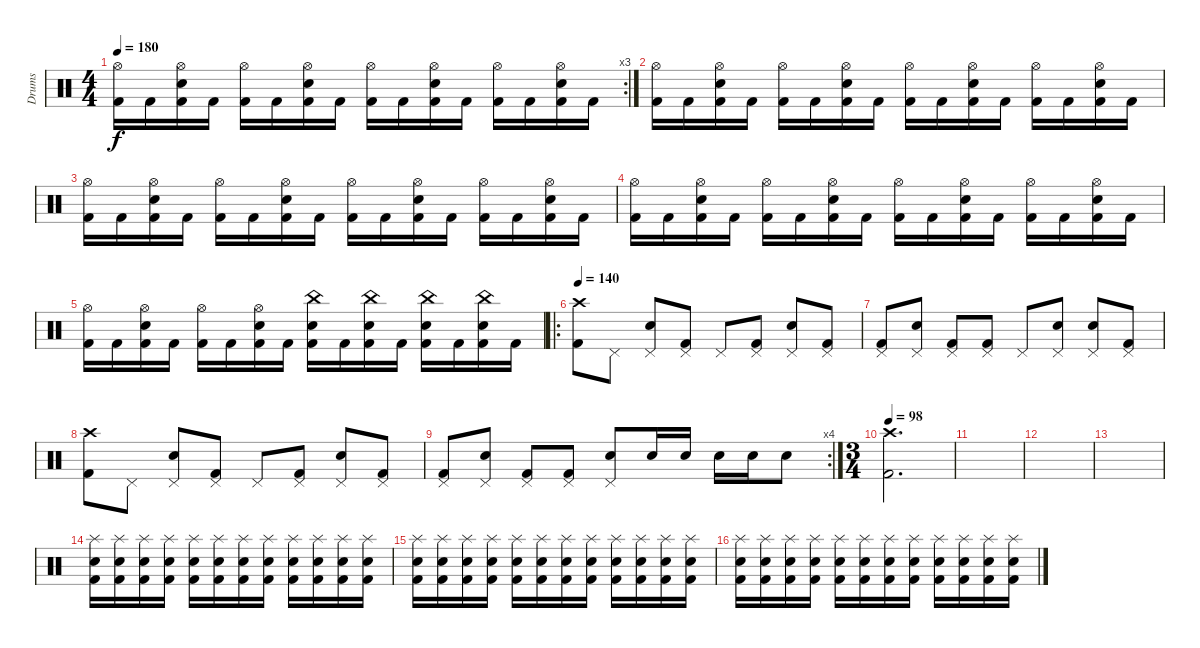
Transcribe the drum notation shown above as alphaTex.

\track ("Drums" "Drums") {instrument percussion}
\staff {score}
\articulation defaults
\rc 3
\ts (4 4)
\tempo 180
\clef neutral
\ks c
("Hi-Hat (open)" "Kick (hit) 2").16{dy f} "Kick (hit) 2".16 ("Hi-Hat (open)" "Electric Snare (hit)" "Kick (hit) 2").16 "Kick (hit) 2".16 ("Hi-Hat (open)" "Kick (hit) 2").16 "Kick (hit) 2".16 ("Hi-Hat (open)" "Electric Snare (hit)" "Kick (hit) 2").16 "Kick (hit) 2".16 ("Hi-Hat (open)" "Kick (hit) 2").16 "Kick (hit) 2".16 ("Hi-Hat (open)" "Electric Snare (hit)" "Kick (hit) 2").16 "Kick (hit) 2".16 ("Hi-Hat (open)" "Kick (hit) 2").16 "Kick (hit) 2".16 ("Hi-Hat (open)" "Electric Snare (hit)" "Kick (hit) 2").16 "Kick (hit) 2".16 |
("Hi-Hat (open)" "Kick (hit) 2").16 "Kick (hit) 2".16 ("Hi-Hat (open)" "Electric Snare (hit)" "Kick (hit) 2").16 "Kick (hit) 2".16 ("Hi-Hat (open)" "Kick (hit) 2").16 "Kick (hit) 2".16 ("Hi-Hat (open)" "Electric Snare (hit)" "Kick (hit) 2").16 "Kick (hit) 2".16 ("Hi-Hat (open)" "Kick (hit) 2").16 "Kick (hit) 2".16 ("Hi-Hat (open)" "Electric Snare (hit)" "Kick (hit) 2").16 "Kick (hit) 2".16 ("Hi-Hat (open)" "Kick (hit) 2").16 "Kick (hit) 2".16 ("Hi-Hat (open)" "Electric Snare (hit)" "Kick (hit) 2").16 "Kick (hit) 2".16 |
("Hi-Hat (open)" "Kick (hit) 2").16 "Kick (hit) 2".16 ("Hi-Hat (open)" "Electric Snare (hit)" "Kick (hit) 2").16 "Kick (hit) 2".16 ("Hi-Hat (open)" "Kick (hit) 2").16 "Kick (hit) 2".16 ("Hi-Hat (open)" "Electric Snare (hit)" "Kick (hit) 2").16 "Kick (hit) 2".16 ("Hi-Hat (open)" "Kick (hit) 2").16 "Kick (hit) 2".16 ("Hi-Hat (open)" "Electric Snare (hit)" "Kick (hit) 2").16 "Kick (hit) 2".16 ("Hi-Hat (open)" "Kick (hit) 2").16 "Kick (hit) 2".16 ("Hi-Hat (open)" "Electric Snare (hit)" "Kick (hit) 2").16 "Kick (hit) 2".16 |
("Hi-Hat (open)" "Kick (hit) 2").16 "Kick (hit) 2".16 ("Hi-Hat (open)" "Electric Snare (hit)" "Kick (hit) 2").16 "Kick (hit) 2".16 ("Hi-Hat (open)" "Kick (hit) 2").16 "Kick (hit) 2".16 ("Hi-Hat (open)" "Electric Snare (hit)" "Kick (hit) 2").16 "Kick (hit) 2".16 ("Hi-Hat (open)" "Kick (hit) 2").16 "Kick (hit) 2".16 ("Hi-Hat (open)" "Electric Snare (hit)" "Kick (hit) 2").16 "Kick (hit) 2".16 ("Hi-Hat (open)" "Kick (hit) 2").16 "Kick (hit) 2".16 ("Hi-Hat (open)" "Electric Snare (hit)" "Kick (hit) 2").16 "Kick (hit) 2".16 |
("Hi-Hat (open)" "Kick (hit) 2").16 "Kick (hit) 2".16 ("Hi-Hat (open)" "Electric Snare (hit)" "Kick (hit) 2").16 "Kick (hit) 2".16 ("Hi-Hat (open)" "Kick (hit) 2").16 "Kick (hit) 2".16 ("Hi-Hat (open)" "Electric Snare (hit)" "Kick (hit) 2").16 "Kick (hit) 2".16 ("China (hit)" "Electric Snare (hit)" "Kick (hit) 2").16 "Kick (hit) 2".16 ("China (hit)" "Electric Snare (hit)" "Kick (hit) 2").16 "Kick (hit) 2".16 ("China (hit)" "Electric Snare (hit)" "Kick (hit) 2").16 "Kick (hit) 2".16 ("China (hit)" "Electric Snare (hit)" "Kick (hit) 2").16 "Kick (hit) 2".16 |
\ro
\tempo 140
("Crash high (hit)" "Kick (hit) 2").8 "Pedal Hi-Hat (hit)".8 ("Pedal Hi-Hat (hit)" "Electric Snare (hit)").8 ("Pedal Hi-Hat (hit)" "Kick (hit) 2").8 "Pedal Hi-Hat (hit)".8 ("Pedal Hi-Hat (hit)" "Kick (hit) 2").8 ("Pedal Hi-Hat (hit)" "Electric Snare (hit)").8 ("Pedal Hi-Hat (hit)" "Kick (hit) 2").8 |
("Pedal Hi-Hat (hit)" "Kick (hit) 2").8 ("Pedal Hi-Hat (hit)" "Electric Snare (hit)").8 ("Pedal Hi-Hat (hit)" "Kick (hit) 2").8 ("Pedal Hi-Hat (hit)" "Kick (hit) 2").8 "Pedal Hi-Hat (hit)".8 ("Pedal Hi-Hat (hit)" "Electric Snare (hit)").8 ("Pedal Hi-Hat (hit)" "Electric Snare (hit)").8 ("Pedal Hi-Hat (hit)" "Kick (hit) 2").8 |
("Crash high (hit)" "Kick (hit) 2").8 "Pedal Hi-Hat (hit)".8 ("Pedal Hi-Hat (hit)" "Electric Snare (hit)").8 ("Pedal Hi-Hat (hit)" "Kick (hit) 2").8 "Pedal Hi-Hat (hit)".8 ("Pedal Hi-Hat (hit)" "Kick (hit) 2").8 ("Pedal Hi-Hat (hit)" "Electric Snare (hit)").8 ("Pedal Hi-Hat (hit)" "Kick (hit) 2").8 |
\rc 4
("Pedal Hi-Hat (hit)" "Kick (hit) 2").8 ("Pedal Hi-Hat (hit)" "Electric Snare (hit)").8 ("Pedal Hi-Hat (hit)" "Kick (hit) 2").8 ("Pedal Hi-Hat (hit)" "Kick (hit) 2").8 ("Pedal Hi-Hat (hit)" "Electric Snare (hit)").8 "Electric Snare (hit)".16 "Electric Snare (hit)".16 "Electric Snare (hit)".16 "Electric Snare (hit)".16 "Electric Snare (hit)".8 |
\ts (3 4)
\tempo 98
("Crash high (hit)" "Kick (hit) 2").2{d} |
|
|
|
("Splash (hit)" "Electric Snare (hit)" "Kick (hit) 2").16 ("Splash (hit)" "Electric Snare (hit)" "Kick (hit) 2").16 ("Splash (hit)" "Electric Snare (hit)" "Kick (hit) 2").16 ("Splash (hit)" "Electric Snare (hit)" "Kick (hit) 2").16 ("Splash (hit)" "Electric Snare (hit)" "Kick (hit) 2").16 ("Splash (hit)" "Electric Snare (hit)" "Kick (hit) 2").16 ("Splash (hit)" "Electric Snare (hit)" "Kick (hit) 2").16 ("Splash (hit)" "Electric Snare (hit)" "Kick (hit) 2").16 ("Splash (hit)" "Electric Snare (hit)" "Kick (hit) 2").16 ("Splash (hit)" "Electric Snare (hit)" "Kick (hit) 2").16 ("Splash (hit)" "Electric Snare (hit)" "Kick (hit) 2").16 ("Splash (hit)" "Electric Snare (hit)" "Kick (hit) 2").16 |
("Splash (hit)" "Electric Snare (hit)" "Kick (hit) 2").16 ("Splash (hit)" "Electric Snare (hit)" "Kick (hit) 2").16 ("Splash (hit)" "Electric Snare (hit)" "Kick (hit) 2").16 ("Splash (hit)" "Electric Snare (hit)" "Kick (hit) 2").16 ("Splash (hit)" "Electric Snare (hit)" "Kick (hit) 2").16 ("Splash (hit)" "Electric Snare (hit)" "Kick (hit) 2").16 ("Splash (hit)" "Electric Snare (hit)" "Kick (hit) 2").16 ("Splash (hit)" "Electric Snare (hit)" "Kick (hit) 2").16 ("Splash (hit)" "Electric Snare (hit)" "Kick (hit) 2").16 ("Splash (hit)" "Electric Snare (hit)" "Kick (hit) 2").16 ("Splash (hit)" "Electric Snare (hit)" "Kick (hit) 2").16 ("Splash (hit)" "Electric Snare (hit)" "Kick (hit) 2").16 |
("Splash (hit)" "Electric Snare (hit)" "Kick (hit) 2").16 ("Splash (hit)" "Electric Snare (hit)" "Kick (hit) 2").16 ("Splash (hit)" "Electric Snare (hit)" "Kick (hit) 2").16 ("Splash (hit)" "Electric Snare (hit)" "Kick (hit) 2").16 ("Splash (hit)" "Electric Snare (hit)" "Kick (hit) 2").16 ("Splash (hit)" "Electric Snare (hit)" "Kick (hit) 2").16 ("Splash (hit)" "Electric Snare (hit)" "Kick (hit) 2").16 ("Splash (hit)" "Electric Snare (hit)" "Kick (hit) 2").16 ("Splash (hit)" "Electric Snare (hit)" "Kick (hit) 2").16 ("Splash (hit)" "Electric Snare (hit)" "Kick (hit) 2").16 ("Splash (hit)" "Electric Snare (hit)" "Kick (hit) 2").16 ("Splash (hit)" "Electric Snare (hit)" "Kick (hit) 2").16
